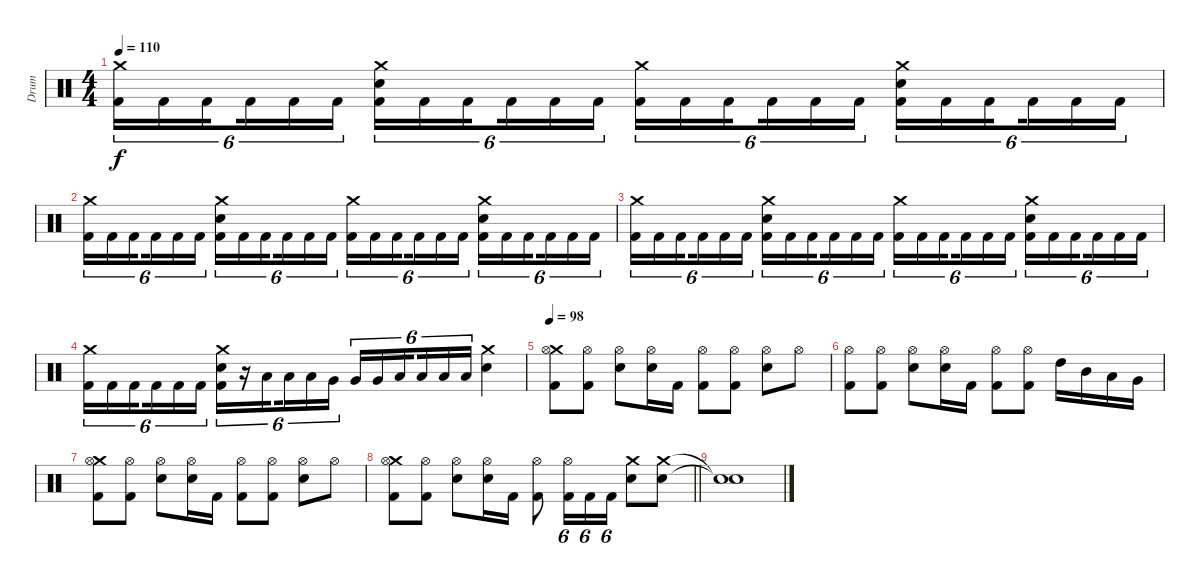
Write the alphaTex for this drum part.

\track ("Drum" "Drum") {instrument percussion}
\staff {score}
\articulation defaults
\ts (4 4)
\tempo 110
\clef neutral
\ks c
("Crash medium (hit)" "Kick (hit) 2").16{tu (6 4) dy f} "Kick (hit) 2".16{tu (6 4)} "Kick (hit) 2".16{tu (6 4) beam splitsecondary} "Kick (hit) 2".16{tu (6 4)} "Kick (hit) 2".16{tu (6 4)} "Kick (hit) 2".16{tu (6 4)} ("Crash medium (hit)" "Electric Snare (hit)" "Kick (hit) 2").16{tu (6 4)} "Kick (hit) 2".16{tu (6 4)} "Kick (hit) 2".16{tu (6 4) beam splitsecondary} "Kick (hit) 2".16{tu (6 4)} "Kick (hit) 2".16{tu (6 4)} "Kick (hit) 2".16{tu (6 4)} ("Crash medium (hit)" "Kick (hit) 2").16{tu (6 4)} "Kick (hit) 2".16{tu (6 4)} "Kick (hit) 2".16{tu (6 4) beam splitsecondary} "Kick (hit) 2".16{tu (6 4)} "Kick (hit) 2".16{tu (6 4)} "Kick (hit) 2".16{tu (6 4)} ("Crash medium (hit)" "Electric Snare (hit)" "Kick (hit) 2").16{tu (6 4)} "Kick (hit) 2".16{tu (6 4)} "Kick (hit) 2".16{tu (6 4) beam splitsecondary} "Kick (hit) 2".16{tu (6 4)} "Kick (hit) 2".16{tu (6 4)} "Kick (hit) 2".16{tu (6 4)} |
("Crash medium (hit)" "Kick (hit) 2").16{tu (6 4)} "Kick (hit) 2".16{tu (6 4)} "Kick (hit) 2".16{tu (6 4) beam splitsecondary} "Kick (hit) 2".16{tu (6 4)} "Kick (hit) 2".16{tu (6 4)} "Kick (hit) 2".16{tu (6 4)} ("Crash medium (hit)" "Electric Snare (hit)" "Kick (hit) 2").16{tu (6 4)} "Kick (hit) 2".16{tu (6 4)} "Kick (hit) 2".16{tu (6 4) beam splitsecondary} "Kick (hit) 2".16{tu (6 4)} "Kick (hit) 2".16{tu (6 4)} "Kick (hit) 2".16{tu (6 4)} ("Crash medium (hit)" "Kick (hit) 2").16{tu (6 4)} "Kick (hit) 2".16{tu (6 4)} "Kick (hit) 2".16{tu (6 4) beam splitsecondary} "Kick (hit) 2".16{tu (6 4)} "Kick (hit) 2".16{tu (6 4)} "Kick (hit) 2".16{tu (6 4)} ("Crash medium (hit)" "Electric Snare (hit)" "Kick (hit) 2").16{tu (6 4)} "Kick (hit) 2".16{tu (6 4)} "Kick (hit) 2".16{tu (6 4) beam splitsecondary} "Kick (hit) 2".16{tu (6 4)} "Kick (hit) 2".16{tu (6 4)} "Kick (hit) 2".16{tu (6 4)} |
("Crash medium (hit)" "Kick (hit) 2").16{tu (6 4)} "Kick (hit) 2".16{tu (6 4)} "Kick (hit) 2".16{tu (6 4) beam splitsecondary} "Kick (hit) 2".16{tu (6 4)} "Kick (hit) 2".16{tu (6 4)} "Kick (hit) 2".16{tu (6 4)} ("Crash medium (hit)" "Electric Snare (hit)" "Kick (hit) 2").16{tu (6 4)} "Kick (hit) 2".16{tu (6 4)} "Kick (hit) 2".16{tu (6 4) beam splitsecondary} "Kick (hit) 2".16{tu (6 4)} "Kick (hit) 2".16{tu (6 4)} "Kick (hit) 2".16{tu (6 4)} ("Crash medium (hit)" "Kick (hit) 2").16{tu (6 4)} "Kick (hit) 2".16{tu (6 4)} "Kick (hit) 2".16{tu (6 4) beam splitsecondary} "Kick (hit) 2".16{tu (6 4)} "Kick (hit) 2".16{tu (6 4)} "Kick (hit) 2".16{tu (6 4)} ("Crash medium (hit)" "Electric Snare (hit)" "Kick (hit) 2").16{tu (6 4)} "Kick (hit) 2".16{tu (6 4)} "Kick (hit) 2".16{tu (6 4) beam splitsecondary} "Kick (hit) 2".16{tu (6 4)} "Kick (hit) 2".16{tu (6 4)} "Kick (hit) 2".16{tu (6 4)} |
("Crash medium (hit)" "Kick (hit) 2").16{tu (6 4)} "Kick (hit) 2".16{tu (6 4)} "Kick (hit) 2".16{tu (6 4) beam splitsecondary} "Kick (hit) 2".16{tu (6 4)} "Kick (hit) 2".16{tu (6 4)} "Kick (hit) 2".16{tu (6 4)} ("Crash medium (hit)" "Electric Snare (hit)" "Kick (hit) 2").16{tu (6 4)} r.16{tu (6 4)} "Low Tom (hit)".16{tu (6 4) beam splitsecondary} "Low Tom (hit)".16{tu (6 4)} "Low Tom (hit)".16{tu (6 4)} "Very Low Tom (hit)".16{tu (6 4)} "Very Low Tom (hit)".16{tu (6 4)} "Very Low Tom (hit)".16{tu (6 4)} "Low Tom (hit)".16{tu (6 4) beam splitsecondary} "Low Tom (hit)".16{tu (6 4)} "Low Tom (hit)".16{tu (6 4)} "Low Tom (hit)".16{tu (6 4)} ("Crash medium (hit)" "Electric Snare (hit)").4 |
\tempo 98
("Crash medium (hit)" "Hi-Hat (open)" "Kick (hit) 2").8 ("Hi-Hat (open)" "Kick (hit) 2").8 ("Hi-Hat (open)" "Electric Snare (hit)").8 ("Hi-Hat (open)" "Electric Snare (hit)").16 "Kick (hit) 2".16 ("Hi-Hat (open)" "Kick (hit) 2").8 ("Hi-Hat (open)" "Kick (hit) 2").8 ("Hi-Hat (open)" "Electric Snare (hit)").8 "Hi-Hat (open)".8 |
("Hi-Hat (open)" "Kick (hit) 2").8 ("Hi-Hat (open)" "Kick (hit) 2").8 ("Hi-Hat (open)" "Electric Snare (hit)").8 ("Hi-Hat (open)" "Electric Snare (hit)").16 "Kick (hit) 2".16 ("Hi-Hat (open)" "Kick (hit) 2").8 ("Hi-Hat (open)" "Kick (hit) 2").8 "High Tom (hit)".16 "Mid Tom (hit)".16 "Low Tom (hit)".16 "Very Low Tom (hit)".16 |
("Crash medium (hit)" "Hi-Hat (open)" "Kick (hit) 2").8 ("Hi-Hat (open)" "Kick (hit) 2").8 ("Hi-Hat (open)" "Electric Snare (hit)").8 ("Hi-Hat (open)" "Electric Snare (hit)").16 "Kick (hit) 2".16 ("Hi-Hat (open)" "Kick (hit) 2").8 ("Hi-Hat (open)" "Kick (hit) 2").8 ("Hi-Hat (open)" "Electric Snare (hit)").8 "Hi-Hat (open)".8 |
\barLineRight lightlight
("Crash medium (hit)" "Hi-Hat (open)" "Kick (hit) 2").8 ("Hi-Hat (open)" "Kick (hit) 2").8 ("Hi-Hat (open)" "Electric Snare (hit)").8 ("Hi-Hat (open)" "Electric Snare (hit)").16 "Kick (hit) 2".16 ("Hi-Hat (open)" "Kick (hit) 2").8 ("Hi-Hat (open)" "Kick (hit) 2").16{tu (6 4)} "Kick (hit) 2".16{tu (6 4)} "Kick (hit) 2".16{tu (6 4)} ("Crash medium (hit)" "Electric Snare (hit)").8 ("Crash medium (hit)" "Electric Snare (hit)").8 |
("Snare (hit)"{t} "Snare (hit)"{t}).1
